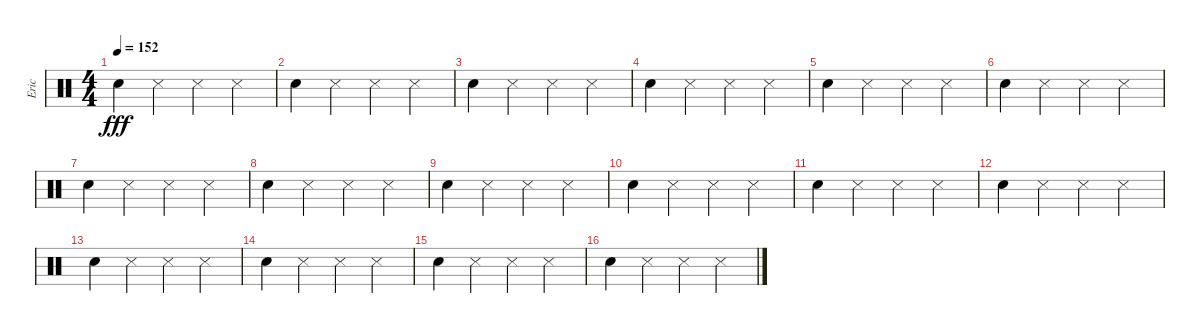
\track ("Eric" "Eric") {instrument percussion}
\staff {score}
\articulation defaults
\ts (4 4)
\tempo 152
\clef neutral
\ks c "Metronome (bell)".4{dy fff} "Metronome (hit)".4 "Metronome (hit)".4 "Metronome (hit)".4
|
"Metronome (bell)".4 "Metronome (hit)".4 "Metronome (hit)".4 "Metronome (hit)".4 |
"Metronome (bell)".4 "Metronome (hit)".4 "Metronome (hit)".4 "Metronome (hit)".4 |
"Metronome (bell)".4 "Metronome (hit)".4 "Metronome (hit)".4 "Metronome (hit)".4 |
"Metronome (bell)".4 "Metronome (hit)".4 "Metronome (hit)".4 "Metronome (hit)".4 |
"Metronome (bell)".4 "Metronome (hit)".4 "Metronome (hit)".4 "Metronome (hit)".4 |
"Metronome (bell)".4 "Metronome (hit)".4 "Metronome (hit)".4 "Metronome (hit)".4 |
"Metronome (bell)".4 "Metronome (hit)".4 "Metronome (hit)".4 "Metronome (hit)".4 |
"Metronome (bell)".4 "Metronome (hit)".4 "Metronome (hit)".4 "Metronome (hit)".4 |
"Metronome (bell)".4 "Metronome (hit)".4 "Metronome (hit)".4 "Metronome (hit)".4 |
"Metronome (bell)".4 "Metronome (hit)".4 "Metronome (hit)".4 "Metronome (hit)".4 |
"Metronome (bell)".4 "Metronome (hit)".4 "Metronome (hit)".4 "Metronome (hit)".4 |
"Metronome (bell)".4 "Metronome (hit)".4 "Metronome (hit)".4 "Metronome (hit)".4 |
"Metronome (bell)".4 "Metronome (hit)".4 "Metronome (hit)".4 "Metronome (hit)".4 |
"Metronome (bell)".4 "Metronome (hit)".4 "Metronome (hit)".4 "Metronome (hit)".4 |
"Metronome (bell)".4 "Metronome (hit)".4 "Metronome (hit)".4 "Metronome (hit)".4
